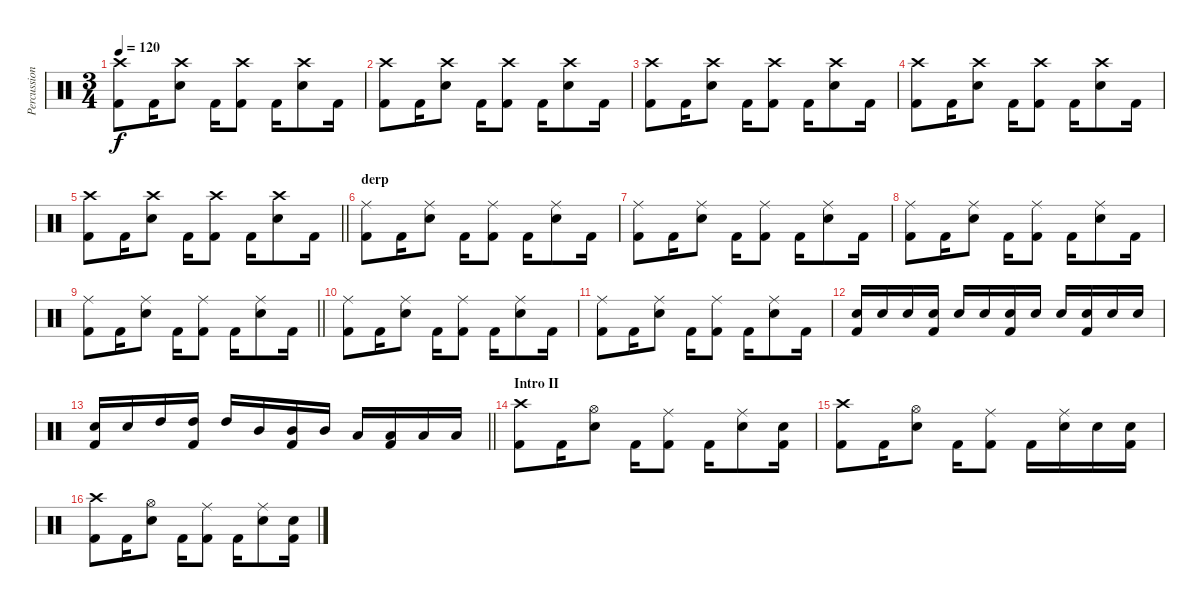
\track ("Percussion" "Percussion") {instrument percussion}
\staff {score}
\articulation defaults
\ts (3 4)
\tempo 120
\clef neutral
\ks c
("Crash high (hit)" "Kick (hit) 2").8{dy f} "Kick (hit) 2".16 ("Crash high (hit)" "Snare (hit) 2").8 "Kick (hit) 2".16 ("Crash high (hit)" "Kick (hit) 2").8 "Kick (hit) 2".16 ("Crash high (hit)" "Snare (hit) 2").8 "Kick (hit) 2".16 |
("Crash high (hit)" "Kick (hit) 2").8 "Kick (hit) 2".16 ("Crash high (hit)" "Snare (hit) 2").8 "Kick (hit) 2".16 ("Crash high (hit)" "Kick (hit) 2").8 "Kick (hit) 2".16 ("Crash high (hit)" "Snare (hit) 2").8 "Kick (hit) 2".16 |
("Crash high (hit)" "Kick (hit) 2").8 "Kick (hit) 2".16 ("Crash high (hit)" "Snare (hit) 2").8 "Kick (hit) 2".16 ("Crash high (hit)" "Kick (hit) 2").8 "Kick (hit) 2".16 ("Crash high (hit)" "Snare (hit) 2").8 "Kick (hit) 2".16 |
("Crash high (hit)" "Kick (hit) 2").8 "Kick (hit) 2".16 ("Crash high (hit)" "Snare (hit) 2").8 "Kick (hit) 2".16 ("Crash high (hit)" "Kick (hit) 2").8 "Kick (hit) 2".16 ("Crash high (hit)" "Snare (hit) 2").8 "Kick (hit) 2".16 |
\barLineRight lightlight
("Crash high (hit)" "Kick (hit) 2").8 "Kick (hit) 2".16 ("Crash high (hit)" "Snare (hit) 2").8 "Kick (hit) 2".16 ("Crash high (hit)" "Kick (hit) 2").8 "Kick (hit) 2".16 ("Crash high (hit)" "Snare (hit) 2").8 "Kick (hit) 2".16 |
\section ("" "derp")
("Ride (middle)" "Kick (hit) 2").8 "Kick (hit) 2".16 ("Ride (middle)" "Snare (hit) 2").8 "Kick (hit) 2".16 ("Ride (middle)" "Kick (hit) 2").8 "Kick (hit) 2".16 ("Ride (middle)" "Snare (hit) 2").8 "Kick (hit) 2".16 |
("Ride (middle)" "Kick (hit) 2").8 "Kick (hit) 2".16 ("Ride (middle)" "Snare (hit) 2").8 "Kick (hit) 2".16 ("Ride (middle)" "Kick (hit) 2").8 "Kick (hit) 2".16 ("Ride (middle)" "Snare (hit) 2").8 "Kick (hit) 2".16 |
("Ride (middle)" "Kick (hit) 2").8 "Kick (hit) 2".16 ("Ride (middle)" "Snare (hit) 2").8 "Kick (hit) 2".16 ("Ride (middle)" "Kick (hit) 2").8 "Kick (hit) 2".16 ("Ride (middle)" "Snare (hit) 2").8 "Kick (hit) 2".16 |
\barLineRight lightlight
("Ride (middle)" "Kick (hit) 2").8 "Kick (hit) 2".16 ("Ride (middle)" "Snare (hit) 2").8 "Kick (hit) 2".16 ("Ride (middle)" "Kick (hit) 2").8 "Kick (hit) 2".16 ("Ride (middle)" "Snare (hit) 2").8 "Kick (hit) 2".16 |
("Ride (middle)" "Kick (hit) 2").8 "Kick (hit) 2".16 ("Ride (middle)" "Snare (hit) 2").8 "Kick (hit) 2".16 ("Ride (middle)" "Kick (hit) 2").8 "Kick (hit) 2".16 ("Ride (middle)" "Snare (hit) 2").8 "Kick (hit) 2".16 |
("Ride (middle)" "Kick (hit) 2").8 "Kick (hit) 2".16 ("Ride (middle)" "Snare (hit) 2").8 "Kick (hit) 2".16 ("Ride (middle)" "Kick (hit) 2").8 "Kick (hit) 2".16 ("Ride (middle)" "Snare (hit) 2").8 "Kick (hit) 2".16 |
("Snare (hit) 2" "Kick (hit) 2").16 "Snare (hit) 2".16 "Snare (hit) 2".16 ("Snare (hit) 2" "Kick (hit) 2").16 "Snare (hit) 2".16 "Snare (hit) 2".16 ("Snare (hit) 2" "Kick (hit) 2").16 "Snare (hit) 2".16 "Snare (hit) 2".16 ("Snare (hit) 2" "Kick (hit) 2").16 "Snare (hit) 2".16 "Snare (hit) 2".16 |
\barLineRight lightlight
("Snare (hit) 2" "Kick (hit) 2").16 "Snare (hit) 2".16 "High Tom (hit)".16 ("High Tom (hit)" "Kick (hit) 2").16 "High Tom (hit)".16 "Mid Tom (hit)".16 ("Mid Tom (hit)" "Kick (hit) 2").16 "Mid Tom (hit)".16 "Low Tom (hit)".16 ("Low Tom (hit)" "Kick (hit) 2").16 "Low Tom (hit)".16 "Low Tom (hit)".16 |
\section ("" "Intro II")
("Crash high (hit)" "Kick (hit) 2").8 "Kick (hit) 2".16 ("Hi-Hat (open)" "Snare (hit) 2").8 "Kick (hit) 2".16 ("Ride (middle)" "Kick (hit) 2").8 "Kick (hit) 2".16 ("Ride (middle)" "Snare (hit) 2").8 ("Snare (hit) 2" "Kick (hit) 2").16 |
("Crash high (hit)" "Kick (hit) 2").8 "Kick (hit) 2".16 ("Hi-Hat (open)" "Snare (hit) 2").8 "Kick (hit) 2".16 ("Ride (middle)" "Kick (hit) 2").8 "Kick (hit) 2".16 ("Ride (middle)" "Snare (hit) 2").16 "Snare (hit) 2".16 ("Snare (hit) 2" "Kick (hit) 2").16 |
("Crash high (hit)" "Kick (hit) 2").8 "Kick (hit) 2".16 ("Hi-Hat (open)" "Snare (hit) 2").8 "Kick (hit) 2".16 ("Ride (middle)" "Kick (hit) 2").8 "Kick (hit) 2".16 ("Ride (middle)" "Snare (hit) 2").8 ("Snare (hit) 2" "Kick (hit) 2").16
